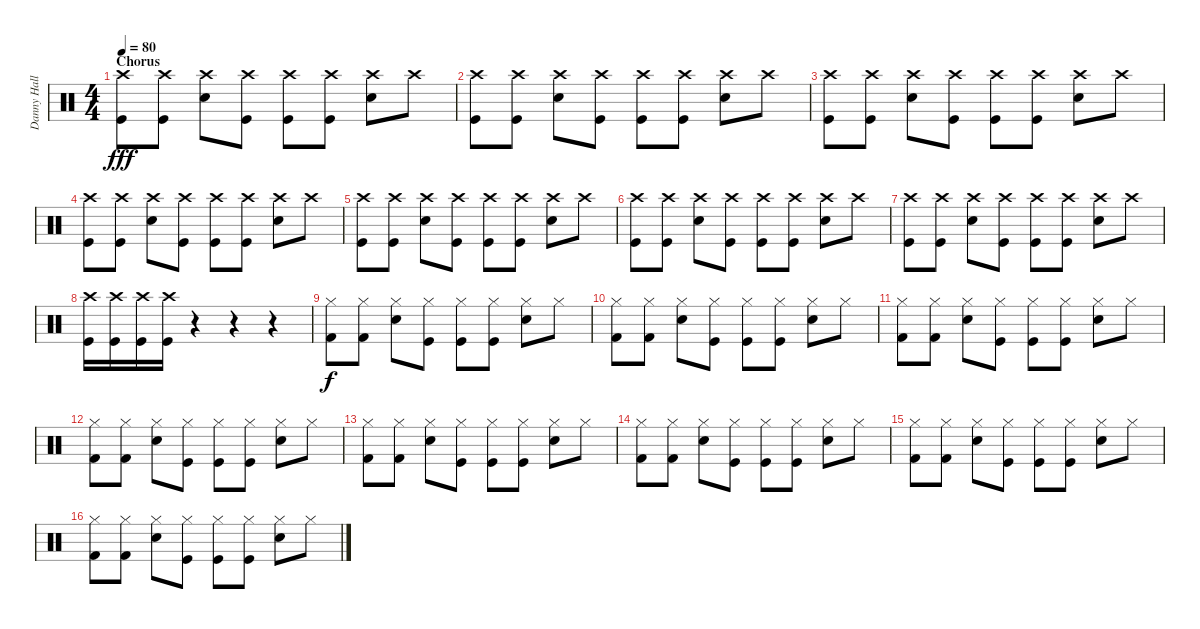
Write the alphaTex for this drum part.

\track ("Danny Hall" "Danny Hall") {instrument percussion}
\staff {score}
\articulation defaults
\ts (4 4)
\section ("" "Chorus")
\tempo 80
\clef neutral
\ks c
("Crash high (hit)" "Kick (hit)").8{dy fff} ("Crash high (hit)" "Kick (hit)").8 ("Crash high (hit)" "Snare (hit) 2").8 ("Crash high (hit)" "Kick (hit)").8 ("Crash high (hit)" "Kick (hit)").8 ("Crash high (hit)" "Kick (hit)").8 ("Crash high (hit)" "Snare (hit) 2").8 "Crash high (hit)".8 |
("Crash high (hit)" "Kick (hit)").8 ("Crash high (hit)" "Kick (hit)").8 ("Crash high (hit)" "Snare (hit) 2").8 ("Crash high (hit)" "Kick (hit)").8 ("Crash high (hit)" "Kick (hit)").8 ("Crash high (hit)" "Kick (hit)").8 ("Crash high (hit)" "Snare (hit) 2").8 "Crash high (hit)".8 |
("Crash high (hit)" "Kick (hit)").8 ("Crash high (hit)" "Kick (hit)").8 ("Crash high (hit)" "Snare (hit) 2").8 ("Crash high (hit)" "Kick (hit)").8 ("Crash high (hit)" "Kick (hit)").8 ("Crash high (hit)" "Kick (hit)").8 ("Crash high (hit)" "Snare (hit) 2").8 "Crash high (hit)".8 |
("Crash high (hit)" "Kick (hit)").8 ("Crash high (hit)" "Kick (hit)").8 ("Crash high (hit)" "Snare (hit) 2").8 ("Crash high (hit)" "Kick (hit)").8 ("Crash high (hit)" "Kick (hit)").8 ("Crash high (hit)" "Kick (hit)").8 ("Crash high (hit)" "Snare (hit) 2").8 "Crash high (hit)".8 |
("Crash high (hit)" "Kick (hit)").8 ("Crash high (hit)" "Kick (hit)").8 ("Crash high (hit)" "Snare (hit) 2").8 ("Crash high (hit)" "Kick (hit)").8 ("Crash high (hit)" "Kick (hit)").8 ("Crash high (hit)" "Kick (hit)").8 ("Crash high (hit)" "Snare (hit) 2").8 "Crash high (hit)".8 |
("Crash high (hit)" "Kick (hit)").8 ("Crash high (hit)" "Kick (hit)").8 ("Crash high (hit)" "Snare (hit) 2").8 ("Crash high (hit)" "Kick (hit)").8 ("Crash high (hit)" "Kick (hit)").8 ("Crash high (hit)" "Kick (hit)").8 ("Crash high (hit)" "Snare (hit) 2").8 "Crash high (hit)".8 |
("Crash high (hit)" "Kick (hit)").8 ("Crash high (hit)" "Kick (hit)").8 ("Crash high (hit)" "Snare (hit) 2").8 ("Crash high (hit)" "Kick (hit)").8 ("Crash high (hit)" "Kick (hit)").8 ("Crash high (hit)" "Kick (hit)").8 ("Crash high (hit)" "Snare (hit) 2").8 "Crash high (hit)".8 |
("Crash high (hit)" "Kick (hit)").16 ("Crash high (hit)" "Kick (hit)").16 ("Crash high (hit)" "Kick (hit)").16 ("Crash high (hit)" "Kick (hit)").16 r.4 r.4 r.4 |
("Hi-Hat (closed)" "Kick (hit) 2").8{dy f} ("Hi-Hat (closed)" "Kick (hit) 2").8 ("Hi-Hat (closed)" "Electric Snare (hit)").8 ("Hi-Hat (closed)" "Kick (hit)").8 ("Hi-Hat (closed)" "Kick (hit)").8 ("Hi-Hat (closed)" "Kick (hit)").8 ("Hi-Hat (closed)" "Electric Snare (hit)").8 "Hi-Hat (closed)".8 |
("Hi-Hat (closed)" "Kick (hit) 2").8 ("Hi-Hat (closed)" "Kick (hit) 2").8 ("Hi-Hat (closed)" "Electric Snare (hit)").8 ("Hi-Hat (closed)" "Kick (hit)").8 ("Hi-Hat (closed)" "Kick (hit)").8 ("Hi-Hat (closed)" "Kick (hit)").8 ("Hi-Hat (closed)" "Electric Snare (hit)").8 "Hi-Hat (closed)".8 |
("Hi-Hat (closed)" "Kick (hit) 2").8 ("Hi-Hat (closed)" "Kick (hit) 2").8 ("Hi-Hat (closed)" "Electric Snare (hit)").8 ("Hi-Hat (closed)" "Kick (hit)").8 ("Hi-Hat (closed)" "Kick (hit)").8 ("Hi-Hat (closed)" "Kick (hit)").8 ("Hi-Hat (closed)" "Electric Snare (hit)").8 "Hi-Hat (closed)".8 |
("Hi-Hat (closed)" "Kick (hit) 2").8 ("Hi-Hat (closed)" "Kick (hit) 2").8 ("Hi-Hat (closed)" "Electric Snare (hit)").8 ("Hi-Hat (closed)" "Kick (hit)").8 ("Hi-Hat (closed)" "Kick (hit)").8 ("Hi-Hat (closed)" "Kick (hit)").8 ("Hi-Hat (closed)" "Electric Snare (hit)").8 "Hi-Hat (closed)".8 |
("Hi-Hat (closed)" "Kick (hit) 2").8 ("Hi-Hat (closed)" "Kick (hit) 2").8 ("Hi-Hat (closed)" "Electric Snare (hit)").8 ("Hi-Hat (closed)" "Kick (hit)").8 ("Hi-Hat (closed)" "Kick (hit)").8 ("Hi-Hat (closed)" "Kick (hit)").8 ("Hi-Hat (closed)" "Electric Snare (hit)").8 "Hi-Hat (closed)".8 |
("Hi-Hat (closed)" "Kick (hit) 2").8 ("Hi-Hat (closed)" "Kick (hit) 2").8 ("Hi-Hat (closed)" "Electric Snare (hit)").8 ("Hi-Hat (closed)" "Kick (hit)").8 ("Hi-Hat (closed)" "Kick (hit)").8 ("Hi-Hat (closed)" "Kick (hit)").8 ("Hi-Hat (closed)" "Electric Snare (hit)").8 "Hi-Hat (closed)".8 |
("Hi-Hat (closed)" "Kick (hit) 2").8 ("Hi-Hat (closed)" "Kick (hit) 2").8 ("Hi-Hat (closed)" "Electric Snare (hit)").8 ("Hi-Hat (closed)" "Kick (hit)").8 ("Hi-Hat (closed)" "Kick (hit)").8 ("Hi-Hat (closed)" "Kick (hit)").8 ("Hi-Hat (closed)" "Electric Snare (hit)").8 "Hi-Hat (closed)".8 |
("Hi-Hat (closed)" "Kick (hit) 2").8 ("Hi-Hat (closed)" "Kick (hit) 2").8 ("Hi-Hat (closed)" "Electric Snare (hit)").8 ("Hi-Hat (closed)" "Kick (hit)").8 ("Hi-Hat (closed)" "Kick (hit)").8 ("Hi-Hat (closed)" "Kick (hit)").8 ("Hi-Hat (closed)" "Electric Snare (hit)").8 "Hi-Hat (closed)".8
